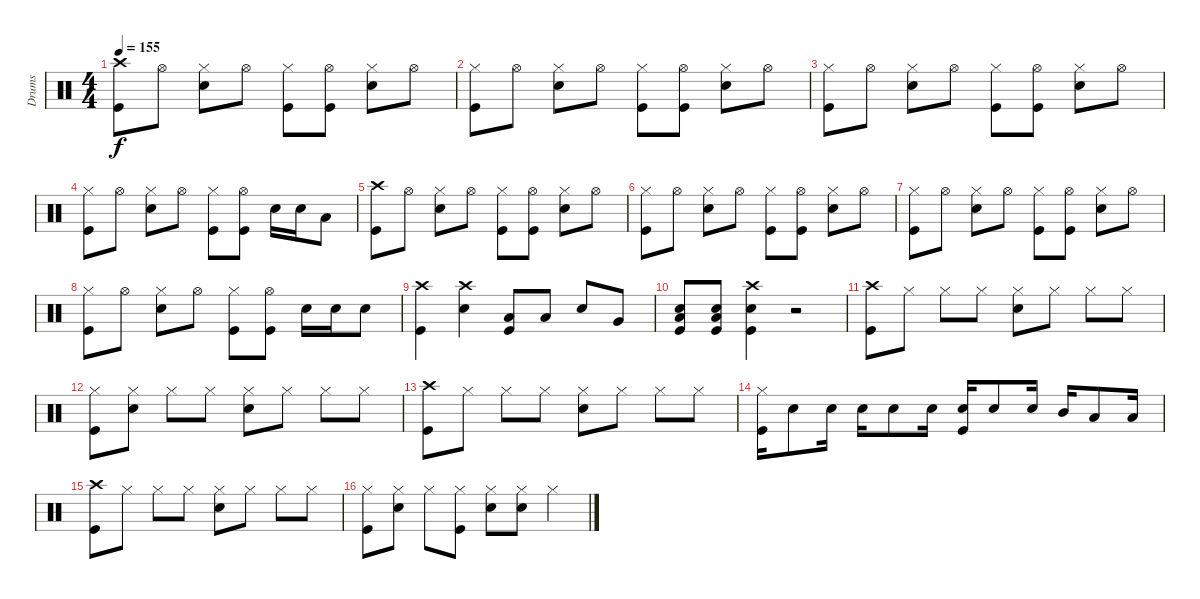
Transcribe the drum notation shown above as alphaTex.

\track ("Drums" "Drums") {instrument percussion}
\staff {score}
\articulation defaults
\ts (4 4)
\tempo 155
\clef neutral
\ks c
("Crash high (hit)" "Kick (hit)").8{dy f} "Hi-Hat (open)".8 ("Hi-Hat (closed)" "Snare (hit) 2").8 "Hi-Hat (open)".8 ("Hi-Hat (closed)" "Kick (hit)").8 ("Hi-Hat (open)" "Kick (hit)").8 ("Hi-Hat (closed)" "Snare (hit) 2").8 "Hi-Hat (open)".8 |
("Hi-Hat (closed)" "Kick (hit)").8 "Hi-Hat (open)".8 ("Hi-Hat (closed)" "Snare (hit) 2").8 "Hi-Hat (open)".8 ("Hi-Hat (closed)" "Kick (hit)").8 ("Hi-Hat (open)" "Kick (hit)").8 ("Hi-Hat (closed)" "Snare (hit) 2").8 "Hi-Hat (open)".8 |
("Hi-Hat (closed)" "Kick (hit)").8 "Hi-Hat (open)".8 ("Hi-Hat (closed)" "Snare (hit) 2").8 "Hi-Hat (open)".8 ("Hi-Hat (closed)" "Kick (hit)").8 ("Hi-Hat (open)" "Kick (hit)").8 ("Hi-Hat (closed)" "Snare (hit) 2").8 "Hi-Hat (open)".8 |
("Hi-Hat (closed)" "Kick (hit)").8 "Hi-Hat (open)".8 ("Hi-Hat (closed)" "Snare (hit) 2").8 "Hi-Hat (open)".8 ("Hi-Hat (closed)" "Kick (hit)").8 ("Hi-Hat (open)" "Kick (hit)").8 "Snare (hit) 2".16 "Snare (hit) 2".16 "Low Floor Tom (hit)".8 |
("Crash high (hit)" "Kick (hit)").8 "Hi-Hat (open)".8 ("Hi-Hat (closed)" "Snare (hit) 2").8 "Hi-Hat (open)".8 ("Hi-Hat (closed)" "Kick (hit)").8 ("Hi-Hat (open)" "Kick (hit)").8 ("Hi-Hat (closed)" "Snare (hit) 2").8 "Hi-Hat (open)".8 |
("Hi-Hat (closed)" "Kick (hit)").8 "Hi-Hat (open)".8 ("Hi-Hat (closed)" "Snare (hit) 2").8 "Hi-Hat (open)".8 ("Hi-Hat (closed)" "Kick (hit)").8 ("Hi-Hat (open)" "Kick (hit)").8 ("Hi-Hat (closed)" "Snare (hit) 2").8 "Hi-Hat (open)".8 |
("Hi-Hat (closed)" "Kick (hit)").8 "Hi-Hat (open)".8 ("Hi-Hat (closed)" "Snare (hit) 2").8 "Hi-Hat (open)".8 ("Hi-Hat (closed)" "Kick (hit)").8 ("Hi-Hat (open)" "Kick (hit)").8 ("Hi-Hat (closed)" "Snare (hit) 2").8 "Hi-Hat (open)".8 |
("Hi-Hat (closed)" "Kick (hit)").8 "Hi-Hat (open)".8 ("Hi-Hat (closed)" "Snare (hit) 2").8 "Hi-Hat (open)".8 ("Hi-Hat (closed)" "Kick (hit)").8 ("Hi-Hat (open)" "Kick (hit)").8 "Snare (hit) 2".16 "Snare (hit) 2".16 "Snare (hit) 2".8 |
("Crash high (hit)" "Kick (hit)").4 ("Crash high (hit)" "Snare (hit) 2").4 ("Low Floor Tom (hit)" "Kick (hit)").8 "Low Floor Tom (hit)".8 "Snare (hit) 2".8 "Very Low Tom (hit)".8 |
("Low Floor Tom (hit)" "Snare (hit) 2" "Kick (hit)").8 ("Low Floor Tom (hit)" "Snare (hit) 2" "Kick (hit)").8 ("Crash high (hit)" "Snare (hit) 2" "Kick (hit)").4 r.2 |
("Crash high (hit)" "Kick (hit)").8 "Hi-Hat (closed)".8 "Hi-Hat (closed)".8 "Hi-Hat (closed)".8 ("Hi-Hat (closed)" "Snare (hit) 2").8 "Hi-Hat (closed)".8 "Hi-Hat (closed)".8 "Hi-Hat (closed)".8 |
("Hi-Hat (closed)" "Kick (hit)").8 ("Hi-Hat (closed)" "Snare (hit) 2").8 "Hi-Hat (closed)".8 "Hi-Hat (closed)".8 ("Hi-Hat (closed)" "Snare (hit) 2").8 "Hi-Hat (closed)".8 "Hi-Hat (closed)".8 "Hi-Hat (closed)".8 |
("Crash high (hit)" "Kick (hit)").8 "Hi-Hat (closed)".8 "Hi-Hat (closed)".8 "Hi-Hat (closed)".8 ("Hi-Hat (closed)" "Snare (hit) 2").8 "Hi-Hat (closed)".8 "Hi-Hat (closed)".8 "Hi-Hat (closed)".8 |
("Hi-Hat (closed)" "Kick (hit)").16 "Snare (hit) 2".8 "Snare (hit) 2".16 "Snare (hit) 2".16 "Snare (hit) 2".8 "Snare (hit) 2".16 ("Snare (hit) 2" "Kick (hit)").16 "Snare (hit) 2".8 "Snare (hit) 2".16 "Mid Tom (hit)".16 "Low Tom (hit)".8 "Low Floor Tom (hit)".16 |
("Crash high (hit)" "Kick (hit)").8 "Hi-Hat (closed)".8 "Hi-Hat (closed)".8 "Hi-Hat (closed)".8 ("Hi-Hat (closed)" "Snare (hit) 2").8 "Hi-Hat (closed)".8 "Hi-Hat (closed)".8 "Hi-Hat (closed)".8 |
("Hi-Hat (closed)" "Kick (hit)").8 ("Hi-Hat (closed)" "Snare (hit) 2").8 "Hi-Hat (closed)".8 ("Hi-Hat (closed)" "Kick (hit)").8 ("Hi-Hat (closed)" "Snare (hit) 2").8 ("Hi-Hat (closed)" "Snare (hit) 2").8 "Hi-Hat (closed)".4
